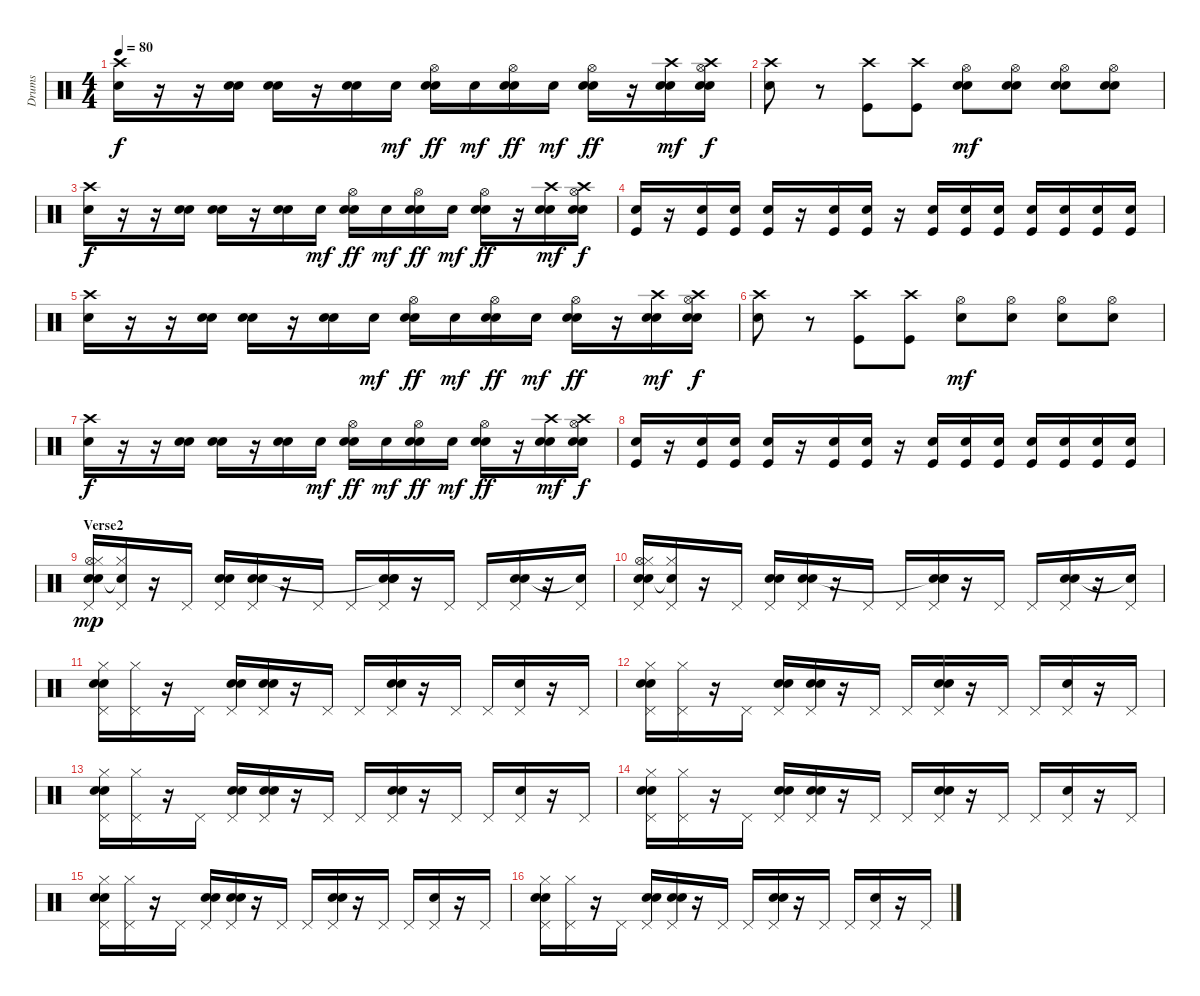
\track ("Drums" "Drums") {instrument percussion}
\staff {score}
\articulation defaults
\ts (4 4)
\tempo 80
\clef neutral
\ks c
("Crash high (hit)" "Snare (hit) 2").16{dy f} r.16 r.16 ("Electric Snare (hit)" "Snare (hit) 2").16 ("Electric Snare (hit)" "Snare (hit) 2").16 r.16 ("Electric Snare (hit)" "Snare (hit) 2").16 "Snare (hit) 2".16{dy mf} ("Hi-Hat (open)" "Electric Snare (hit)" "Snare (hit) 2").16{dy ff} "Snare (hit) 2".16{dy mf} ("Hi-Hat (open)" "Electric Snare (hit)" "Snare (hit) 2").16{dy ff} "Snare (hit) 2".16{dy mf} ("Hi-Hat (open)" "Electric Snare (hit)" "Snare (hit) 2").16{dy ff} r.16 ("Electric Snare (hit)" "Crash high (hit)" "Snare (hit) 2").16{dy mf} ("Hi-Hat (open)" "Crash high (hit)" "Electric Snare (hit)" "Snare (hit) 2").16{dy f} |
("Crash high (hit)" "Snare (hit) 2").8 r.8 ("Kick (hit)" "Crash high (hit)").8 ("Kick (hit)" "Crash high (hit)").8 ("Hi-Hat (open)" "Electric Snare (hit)" "Snare (hit) 2").8{dy mf} ("Hi-Hat (open)" "Electric Snare (hit)" "Snare (hit) 2").8 ("Hi-Hat (open)" "Electric Snare (hit)" "Snare (hit) 2").8 ("Hi-Hat (open)" "Electric Snare (hit)" "Snare (hit) 2").8 |
("Crash high (hit)" "Snare (hit) 2").16{dy f} r.16 r.16 ("Electric Snare (hit)" "Snare (hit) 2").16 ("Electric Snare (hit)" "Snare (hit) 2").16 r.16 ("Electric Snare (hit)" "Snare (hit) 2").16 "Snare (hit) 2".16{dy mf} ("Hi-Hat (open)" "Electric Snare (hit)" "Snare (hit) 2").16{dy ff} "Snare (hit) 2".16{dy mf} ("Hi-Hat (open)" "Electric Snare (hit)" "Snare (hit) 2").16{dy ff} "Snare (hit) 2".16{dy mf} ("Hi-Hat (open)" "Electric Snare (hit)" "Snare (hit) 2").16{dy ff} r.16 ("Electric Snare (hit)" "Crash high (hit)" "Snare (hit) 2").16{dy mf} ("Hi-Hat (open)" "Crash high (hit)" "Electric Snare (hit)" "Snare (hit) 2").16{dy f} |
("Kick (hit)" "Snare (hit) 2").16 r.16 ("Kick (hit)" "Snare (hit) 2").16 ("Kick (hit)" "Snare (hit) 2").16 ("Kick (hit)" "Snare (hit) 2").16 r.16 ("Snare (hit) 2" "Kick (hit)").16 ("Snare (hit) 2" "Kick (hit)").16 r.16 ("Snare (hit) 2" "Kick (hit)").16 ("Kick (hit)" "Snare (hit) 2").16 ("Snare (hit) 2" "Kick (hit)").16 ("Kick (hit)" "Snare (hit) 2").16 ("Snare (hit) 2" "Kick (hit)").16 ("Kick (hit)" "Snare (hit) 2").16 ("Snare (hit) 2" "Kick (hit)").16 |
("Crash high (hit)" "Snare (hit) 2").16 r.16 r.16 ("Electric Snare (hit)" "Snare (hit) 2").16 ("Electric Snare (hit)" "Snare (hit) 2").16 r.16 ("Electric Snare (hit)" "Snare (hit) 2").16 "Snare (hit) 2".16{dy mf} ("Hi-Hat (open)" "Electric Snare (hit)" "Snare (hit) 2").16{dy ff} "Snare (hit) 2".16{dy mf} ("Hi-Hat (open)" "Electric Snare (hit)" "Snare (hit) 2").16{dy ff} "Snare (hit) 2".16{dy mf} ("Hi-Hat (open)" "Electric Snare (hit)" "Snare (hit) 2").16{dy ff} r.16 ("Electric Snare (hit)" "Crash high (hit)" "Snare (hit) 2").16{dy mf} ("Hi-Hat (open)" "Crash high (hit)" "Electric Snare (hit)" "Snare (hit) 2").16{dy f} |
("Crash high (hit)" "Snare (hit) 2").8 r.8 ("Kick (hit)" "Crash high (hit)").8 ("Kick (hit)" "Crash high (hit)").8 ("Hi-Hat (open)" "Snare (hit) 2").8{dy mf} ("Hi-Hat (open)" "Snare (hit) 2").8 ("Hi-Hat (open)" "Snare (hit) 2").8 ("Hi-Hat (open)" "Snare (hit) 2").8 |
("Crash high (hit)" "Snare (hit) 2").16{dy f} r.16 r.16 ("Electric Snare (hit)" "Snare (hit) 2").16 ("Electric Snare (hit)" "Snare (hit) 2").16 r.16 ("Electric Snare (hit)" "Snare (hit) 2").16 "Snare (hit) 2".16{dy mf} ("Hi-Hat (open)" "Electric Snare (hit)" "Snare (hit) 2").16{dy ff} "Snare (hit) 2".16{dy mf} ("Hi-Hat (open)" "Electric Snare (hit)" "Snare (hit) 2").16{dy ff} "Snare (hit) 2".16{dy mf} ("Hi-Hat (open)" "Electric Snare (hit)" "Snare (hit) 2").16{dy ff} r.16 ("Electric Snare (hit)" "Crash high (hit)" "Snare (hit) 2").16{dy mf} ("Hi-Hat (open)" "Crash high (hit)" "Electric Snare (hit)" "Snare (hit) 2").16{dy f} |
("Kick (hit)" "Snare (hit) 2").16 r.16 ("Kick (hit)" "Snare (hit) 2").16 ("Kick (hit)" "Snare (hit) 2").16 ("Kick (hit)" "Snare (hit) 2").16 r.16 ("Snare (hit) 2" "Kick (hit)").16 ("Snare (hit) 2" "Kick (hit)").16 r.16 ("Snare (hit) 2" "Kick (hit)").16 ("Kick (hit)" "Snare (hit) 2").16 ("Snare (hit) 2" "Kick (hit)").16 ("Kick (hit)" "Snare (hit) 2").16 ("Snare (hit) 2" "Kick (hit)").16 ("Kick (hit)" "Snare (hit) 2").16 ("Snare (hit) 2" "Kick (hit)").16 |
\section ("" "Verse2")
("Snare (hit) 2" "Hi-Hat (open)" "Electric Snare (hit)" "Hi-Hat (closed)" "Pedal Hi-Hat (hit)").16{dy mp} ("Snare (hit)"{t} "Hi-Hat (closed)" "Pedal Hi-Hat (hit)").16 r.16 "Pedal Hi-Hat (hit)".16 ("Electric Snare (hit)" "Electric Snare (hit)" "Pedal Hi-Hat (hit)").16 ("Electric Snare (hit)" "Electric Snare (hit)" "Pedal Hi-Hat (hit)").16 r.16 "Pedal Hi-Hat (hit)".16 "Pedal Hi-Hat (hit)".16 ("Electric Snare (hit)" "Electric Snare (hit)"{t} "Electric Snare (hit)" "Pedal Hi-Hat (hit)").16 r.16 "Pedal Hi-Hat (hit)".16 "Pedal Hi-Hat (hit)".16 ("Electric Snare (hit)" "Electric Snare (hit)" "Pedal Hi-Hat (hit)").16 r.16 ("Snare (hit)"{t} "Pedal Hi-Hat (hit)").16 |
("Snare (hit) 2" "Hi-Hat (open)" "Electric Snare (hit)" "Hi-Hat (closed)" "Pedal Hi-Hat (hit)").16 ("Snare (hit)"{t} "Hi-Hat (closed)" "Pedal Hi-Hat (hit)").16 r.16 "Pedal Hi-Hat (hit)".16 ("Electric Snare (hit)" "Electric Snare (hit)" "Pedal Hi-Hat (hit)").16 ("Electric Snare (hit)" "Electric Snare (hit)" "Pedal Hi-Hat (hit)").16 r.16 "Pedal Hi-Hat (hit)".16 "Pedal Hi-Hat (hit)".16 ("Electric Snare (hit)" "Electric Snare (hit)"{t} "Electric Snare (hit)" "Pedal Hi-Hat (hit)").16 r.16 "Pedal Hi-Hat (hit)".16 "Pedal Hi-Hat (hit)".16 ("Electric Snare (hit)" "Electric Snare (hit)" "Pedal Hi-Hat (hit)").16 r.16 ("Snare (hit)"{t} "Pedal Hi-Hat (hit)").16 |
("Electric Snare (hit)" "Snare (hit) 2" "Hi-Hat (closed)" "Pedal Hi-Hat (hit)").16 ("Hi-Hat (closed)" "Pedal Hi-Hat (hit)").16 r.16 "Pedal Hi-Hat (hit)".16 ("Electric Snare (hit)" "Electric Snare (hit)" "Pedal Hi-Hat (hit)").16 ("Electric Snare (hit)" "Electric Snare (hit)" "Pedal Hi-Hat (hit)").16 r.16 "Pedal Hi-Hat (hit)".16 "Pedal Hi-Hat (hit)".16 ("Electric Snare (hit)" "Electric Snare (hit)" "Pedal Hi-Hat (hit)").16 r.16 "Pedal Hi-Hat (hit)".16 "Pedal Hi-Hat (hit)".16 ("Electric Snare (hit)" "Pedal Hi-Hat (hit)").16 r.16 "Pedal Hi-Hat (hit)".16 |
("Electric Snare (hit)" "Snare (hit) 2" "Hi-Hat (closed)" "Pedal Hi-Hat (hit)").16 ("Hi-Hat (closed)" "Pedal Hi-Hat (hit)").16 r.16 "Pedal Hi-Hat (hit)".16 ("Electric Snare (hit)" "Electric Snare (hit)" "Pedal Hi-Hat (hit)").16 ("Electric Snare (hit)" "Electric Snare (hit)" "Pedal Hi-Hat (hit)").16 r.16 "Pedal Hi-Hat (hit)".16 "Pedal Hi-Hat (hit)".16 ("Electric Snare (hit)" "Electric Snare (hit)" "Pedal Hi-Hat (hit)").16 r.16 "Pedal Hi-Hat (hit)".16 "Pedal Hi-Hat (hit)".16 ("Electric Snare (hit)" "Pedal Hi-Hat (hit)").16 r.16 "Pedal Hi-Hat (hit)".16 |
("Electric Snare (hit)" "Snare (hit) 2" "Hi-Hat (closed)" "Pedal Hi-Hat (hit)").16 ("Hi-Hat (closed)" "Pedal Hi-Hat (hit)").16 r.16 "Pedal Hi-Hat (hit)".16 ("Electric Snare (hit)" "Electric Snare (hit)" "Pedal Hi-Hat (hit)").16 ("Electric Snare (hit)" "Electric Snare (hit)" "Pedal Hi-Hat (hit)").16 r.16 "Pedal Hi-Hat (hit)".16 "Pedal Hi-Hat (hit)".16 ("Electric Snare (hit)" "Electric Snare (hit)" "Pedal Hi-Hat (hit)").16 r.16 "Pedal Hi-Hat (hit)".16 "Pedal Hi-Hat (hit)".16 ("Electric Snare (hit)" "Pedal Hi-Hat (hit)").16 r.16 "Pedal Hi-Hat (hit)".16 |
("Electric Snare (hit)" "Snare (hit) 2" "Hi-Hat (closed)" "Pedal Hi-Hat (hit)").16 ("Hi-Hat (closed)" "Pedal Hi-Hat (hit)").16 r.16 "Pedal Hi-Hat (hit)".16 ("Electric Snare (hit)" "Electric Snare (hit)" "Pedal Hi-Hat (hit)").16 ("Electric Snare (hit)" "Electric Snare (hit)" "Pedal Hi-Hat (hit)").16 r.16 "Pedal Hi-Hat (hit)".16 "Pedal Hi-Hat (hit)".16 ("Electric Snare (hit)" "Electric Snare (hit)" "Pedal Hi-Hat (hit)").16 r.16 "Pedal Hi-Hat (hit)".16 "Pedal Hi-Hat (hit)".16 ("Electric Snare (hit)" "Pedal Hi-Hat (hit)").16 r.16 "Pedal Hi-Hat (hit)".16 |
("Electric Snare (hit)" "Snare (hit) 2" "Hi-Hat (closed)" "Pedal Hi-Hat (hit)").16 ("Hi-Hat (closed)" "Pedal Hi-Hat (hit)").16 r.16 "Pedal Hi-Hat (hit)".16 ("Electric Snare (hit)" "Electric Snare (hit)" "Pedal Hi-Hat (hit)").16 ("Electric Snare (hit)" "Electric Snare (hit)" "Pedal Hi-Hat (hit)").16 r.16 "Pedal Hi-Hat (hit)".16 "Pedal Hi-Hat (hit)".16 ("Electric Snare (hit)" "Electric Snare (hit)" "Pedal Hi-Hat (hit)").16 r.16 "Pedal Hi-Hat (hit)".16 "Pedal Hi-Hat (hit)".16 ("Electric Snare (hit)" "Pedal Hi-Hat (hit)").16 r.16 "Pedal Hi-Hat (hit)".16 |
("Electric Snare (hit)" "Snare (hit) 2" "Hi-Hat (closed)" "Pedal Hi-Hat (hit)").16 ("Hi-Hat (closed)" "Pedal Hi-Hat (hit)").16 r.16 "Pedal Hi-Hat (hit)".16 ("Electric Snare (hit)" "Electric Snare (hit)" "Pedal Hi-Hat (hit)").16 ("Electric Snare (hit)" "Electric Snare (hit)" "Pedal Hi-Hat (hit)").16 r.16 "Pedal Hi-Hat (hit)".16 "Pedal Hi-Hat (hit)".16 ("Electric Snare (hit)" "Electric Snare (hit)" "Pedal Hi-Hat (hit)").16 r.16 "Pedal Hi-Hat (hit)".16 "Pedal Hi-Hat (hit)".16 ("Electric Snare (hit)" "Pedal Hi-Hat (hit)").16 r.16 "Pedal Hi-Hat (hit)".16
